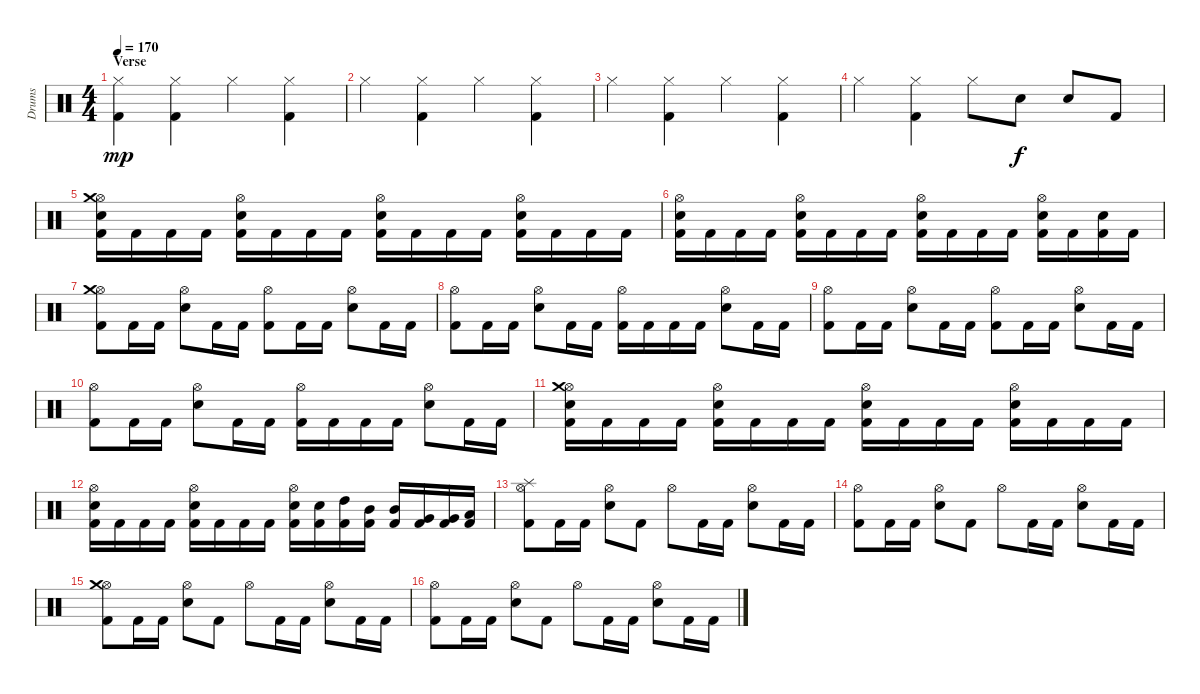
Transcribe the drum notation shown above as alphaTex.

\track ("Drums" "Drums") {instrument percussion}
\staff {score}
\articulation defaults
\ts (4 4)
\section ("" "Verse")
\tempo 170
\clef neutral
\ks c
("Kick (hit) 2" "Hi-Hat (closed)").4{dy mp} ("Kick (hit) 2" "Hi-Hat (closed)").4 "Hi-Hat (closed)".4 ("Kick (hit) 2" "Hi-Hat (closed)").4 |
"Hi-Hat (closed)".4 ("Kick (hit) 2" "Hi-Hat (closed)").4 "Hi-Hat (closed)".4 ("Kick (hit) 2" "Hi-Hat (closed)").4 |
"Hi-Hat (closed)".4 ("Kick (hit) 2" "Hi-Hat (closed)").4 "Hi-Hat (closed)".4 ("Kick (hit) 2" "Hi-Hat (closed)").4 |
"Hi-Hat (closed)".4 ("Kick (hit) 2" "Hi-Hat (closed)").4 "Hi-Hat (closed)".8 "Snare (hit) 2".8{dy f} "Snare (hit) 2".8 "Kick (hit) 2".8 |
("Kick (hit) 2" "Snare (hit) 2" "Hi-Hat (open)" "Crash medium (hit)").16 "Kick (hit) 2".16 "Kick (hit) 2".16 "Kick (hit) 2".16 ("Kick (hit) 2" "Snare (hit) 2" "Hi-Hat (open)").16 "Kick (hit) 2".16 "Kick (hit) 2".16 "Kick (hit) 2".16 ("Kick (hit) 2" "Snare (hit) 2" "Hi-Hat (open)").16 "Kick (hit) 2".16 "Kick (hit) 2".16 "Kick (hit) 2".16 ("Kick (hit) 2" "Snare (hit) 2" "Hi-Hat (open)").16 "Kick (hit) 2".16 "Kick (hit) 2".16 "Kick (hit) 2".16 |
("Kick (hit) 2" "Snare (hit) 2" "Hi-Hat (open)").16 "Kick (hit) 2".16 "Kick (hit) 2".16 "Kick (hit) 2".16 ("Kick (hit) 2" "Snare (hit) 2" "Hi-Hat (open)").16 "Kick (hit) 2".16 "Kick (hit) 2".16 "Kick (hit) 2".16 ("Kick (hit) 2" "Snare (hit) 2" "Hi-Hat (open)").16 "Kick (hit) 2".16 "Kick (hit) 2".16 "Kick (hit) 2".16 ("Kick (hit) 2" "Snare (hit) 2" "Hi-Hat (open)").16 "Kick (hit) 2".16 ("Kick (hit) 2" "Snare (hit) 2").16 "Kick (hit) 2".16 |
("Kick (hit) 2" "Hi-Hat (open)" "Crash medium (hit)").8 "Kick (hit) 2".16 "Kick (hit) 2".16 ("Snare (hit) 2" "Hi-Hat (open)").8 "Kick (hit) 2".16 "Kick (hit) 2".16 ("Kick (hit) 2" "Hi-Hat (open)").8 "Kick (hit) 2".16 "Kick (hit) 2".16 ("Snare (hit) 2" "Hi-Hat (open)").8 "Kick (hit) 2".16 "Kick (hit) 2".16 |
("Kick (hit) 2" "Hi-Hat (open)").8 "Kick (hit) 2".16 "Kick (hit) 2".16 ("Snare (hit) 2" "Hi-Hat (open)").8 "Kick (hit) 2".16 "Kick (hit) 2".16 ("Kick (hit) 2" "Hi-Hat (open)").16 "Kick (hit) 2".16 "Kick (hit) 2".16 "Kick (hit) 2".16 ("Snare (hit) 2" "Hi-Hat (open)").8 "Kick (hit) 2".16 "Kick (hit) 2".16 |
("Kick (hit) 2" "Hi-Hat (open)").8 "Kick (hit) 2".16 "Kick (hit) 2".16 ("Snare (hit) 2" "Hi-Hat (open)").8 "Kick (hit) 2".16 "Kick (hit) 2".16 ("Kick (hit) 2" "Hi-Hat (open)").8 "Kick (hit) 2".16 "Kick (hit) 2".16 ("Snare (hit) 2" "Hi-Hat (open)").8 "Kick (hit) 2".16 "Kick (hit) 2".16 |
("Kick (hit) 2" "Hi-Hat (open)").8 "Kick (hit) 2".16 "Kick (hit) 2".16 ("Snare (hit) 2" "Hi-Hat (open)").8 "Kick (hit) 2".16 "Kick (hit) 2".16 ("Kick (hit) 2" "Hi-Hat (open)").16 "Kick (hit) 2".16 "Kick (hit) 2".16 "Kick (hit) 2".16 ("Snare (hit) 2" "Hi-Hat (open)").8 "Kick (hit) 2".16 "Kick (hit) 2".16 |
("Kick (hit) 2" "Snare (hit) 2" "Hi-Hat (open)" "Crash medium (hit)").16 "Kick (hit) 2".16 "Kick (hit) 2".16 "Kick (hit) 2".16 ("Kick (hit) 2" "Snare (hit) 2" "Hi-Hat (open)").16 "Kick (hit) 2".16 "Kick (hit) 2".16 "Kick (hit) 2".16 ("Kick (hit) 2" "Snare (hit) 2" "Hi-Hat (open)").16 "Kick (hit) 2".16 "Kick (hit) 2".16 "Kick (hit) 2".16 ("Kick (hit) 2" "Snare (hit) 2" "Hi-Hat (open)").16 "Kick (hit) 2".16 "Kick (hit) 2".16 "Kick (hit) 2".16 |
("Kick (hit) 2" "Snare (hit) 2" "Hi-Hat (open)").16 "Kick (hit) 2".16 "Kick (hit) 2".16 "Kick (hit) 2".16 ("Kick (hit) 2" "Snare (hit) 2" "Hi-Hat (open)").16 "Kick (hit) 2".16 "Kick (hit) 2".16 "Kick (hit) 2".16 ("Kick (hit) 2" "Snare (hit) 2" "Hi-Hat (open)").16 ("Kick (hit) 2" "Snare (hit) 2").16 ("Kick (hit) 2" "High Tom (hit)").16 ("Kick (hit) 2" "Mid Tom (hit)").16 ("Kick (hit) 2" "Mid Tom (hit)").16 ("Kick (hit) 2" "Very Low Tom (hit)").16 ("Kick (hit) 2" "Very Low Tom (hit)").16 ("Kick (hit) 2" "Low Floor Tom (hit)").16 |
\section ("" "")
("Kick (hit) 2" "Hi-Hat (open)" "Splash (hit)").8 "Kick (hit) 2".16 "Kick (hit) 2".16 ("Snare (hit) 2" "Hi-Hat (open)").8 "Kick (hit) 2".8 "Hi-Hat (open)".8 "Kick (hit) 2".16 "Kick (hit) 2".16 ("Snare (hit) 2" "Hi-Hat (open)").8 "Kick (hit) 2".16 "Kick (hit) 2".16 |
("Kick (hit) 2" "Hi-Hat (open)").8 "Kick (hit) 2".16 "Kick (hit) 2".16 ("Snare (hit) 2" "Hi-Hat (open)").8 "Kick (hit) 2".8 "Hi-Hat (open)".8 "Kick (hit) 2".16 "Kick (hit) 2".16 ("Snare (hit) 2" "Hi-Hat (open)").8 "Kick (hit) 2".16 "Kick (hit) 2".16 |
("Kick (hit) 2" "Hi-Hat (open)" "Crash medium (hit)").8 "Kick (hit) 2".16 "Kick (hit) 2".16 ("Snare (hit) 2" "Hi-Hat (open)").8 "Kick (hit) 2".8 "Hi-Hat (open)".8 "Kick (hit) 2".16 "Kick (hit) 2".16 ("Snare (hit) 2" "Hi-Hat (open)").8 "Kick (hit) 2".16 "Kick (hit) 2".16 |
("Kick (hit) 2" "Hi-Hat (open)").8 "Kick (hit) 2".16 "Kick (hit) 2".16 ("Snare (hit) 2" "Hi-Hat (open)").8 "Kick (hit) 2".8 "Hi-Hat (open)".8 "Kick (hit) 2".16 "Kick (hit) 2".16 ("Snare (hit) 2" "Hi-Hat (open)").8 "Kick (hit) 2".16 "Kick (hit) 2".16
